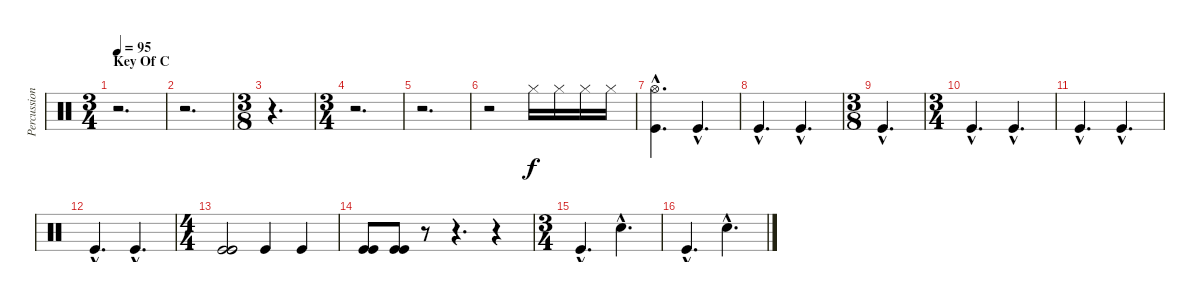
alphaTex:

\track ("Percussion" "Percussion") {instrument percussion}
\staff {score}
\articulation defaults
\ts (3 4)
\section ("" "Key Of C")
\tempo 95
\clef neutral
\ks c
r.2{d dy f} |
r.2{d} |
\ts (3 8)
r.4{d} |
\ts (3 4)
r.2{d} |
r.2{d} |
r.2 "Hi-Hat (closed)".16{volume 16} "Hi-Hat (closed)".16 "Hi-Hat (closed)".16 "Hi-Hat (closed)".16 |
("Hi-Hat (open)"{hac} "Kick (hit)"{hac}).4{d volume 13} "Kick (hit)"{hac}.4{d} |
"Kick (hit)"{hac}.4{d} "Kick (hit)"{hac}.4{d} |
\ts (3 8)
"Kick (hit)"{hac}.4{d} |
\ts (3 4)
"Kick (hit)"{hac}.4{d} "Kick (hit)"{hac}.4{d} |
"Kick (hit)"{hac}.4{d} "Kick (hit)"{hac}.4{d} |
"Kick (hit)"{hac}.4{d} "Kick (hit)"{hac}.4{d} |
\ts (4 4)
("Kick (hit)" "Kick (hit)" "Kick (hit)").2 "Kick (hit)".4 "Kick (hit)".4 |
("Kick (hit)" "Kick (hit)").8 ("Kick (hit)" "Kick (hit)").8 r.8 r.4{d} r.4 |
\ts (3 4)
"Kick (hit)"{hac}.4{d} "Snare (hit) 2"{hac}.4{d} |
"Kick (hit)"{hac}.4{d} "Snare (hit) 2"{hac}.4{d}
